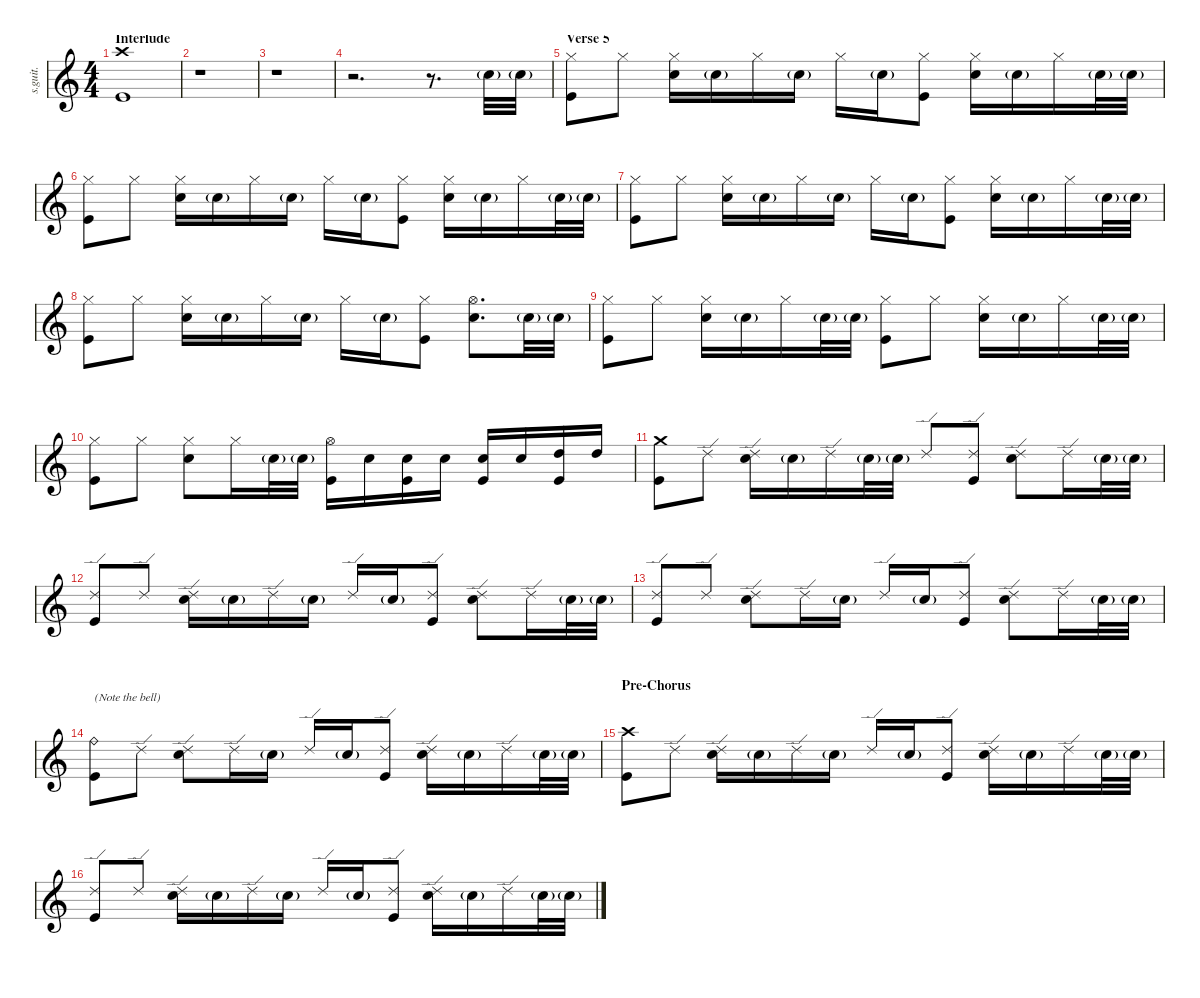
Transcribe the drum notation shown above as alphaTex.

\defaultSystemsLayout 4
\hideDynamics
\bracketExtendMode nobrackets
\track ("C. Smith" "s.guit.") {instrument percussion}
\staff {score}
\articulation defaults
\ts (4 4)
\section ("" "Interlude")
\tempo (96 hide)
\clef g2
\ks c
("Crash high (hit)" "Kick (hit)").1{lyrics (0 "") lyrics (1 "") lyrics (2 "") lyrics (3 "") lyrics (4 "") dy f} |
r.1 |
r.1 |
r.2{d} r.8{d} "Snare (hit) 2"{g}.32{lyrics (0 "") lyrics (1 "") lyrics (2 "") lyrics (3 "") lyrics (4 "") dy ppp} "Snare (hit) 2"{g}.32{lyrics (0 "") lyrics (1 "") lyrics (2 "") lyrics (3 "") lyrics (4 "")} |
\section ("" "Verse 5")
("Hi-Hat (closed)" "Kick (hit)").8{lyrics (0 "") lyrics (1 "") lyrics (2 "") lyrics (3 "") lyrics (4 "") dy f} "Hi-Hat (closed)".8{lyrics (0 "") lyrics (1 "") lyrics (2 "") lyrics (3 "") lyrics (4 "") dy mp} ("Hi-Hat (closed)" "Snare (hit) 2").16{lyrics (0 "") lyrics (1 "") lyrics (2 "") lyrics (3 "") lyrics (4 "") dy f} "Snare (hit) 2"{g}.16{lyrics (0 "") lyrics (1 "") lyrics (2 "") lyrics (3 "") lyrics (4 "") dy ppp} "Hi-Hat (closed)".16{lyrics (0 "") lyrics (1 "") lyrics (2 "") lyrics (3 "") lyrics (4 "") dy mp} "Snare (hit) 2"{g}.16{lyrics (0 "") lyrics (1 "") lyrics (2 "") lyrics (3 "") lyrics (4 "") dy ppp} "Hi-Hat (closed)".16{lyrics (0 "") lyrics (1 "") lyrics (2 "") lyrics (3 "") lyrics (4 "") dy fff} "Snare (hit) 2"{g}.16{lyrics (0 "") lyrics (1 "") lyrics (2 "") lyrics (3 "") lyrics (4 "") dy ppp} ("Hi-Hat (closed)" "Kick (hit)").8{lyrics (0 "") lyrics (1 "") lyrics (2 "") lyrics (3 "") lyrics (4 "") dy f} ("Hi-Hat (closed)" "Snare (hit) 2").16{lyrics (0 "") lyrics (1 "") lyrics (2 "") lyrics (3 "") lyrics (4 "")} "Snare (hit) 2"{g}.16{lyrics (0 "") lyrics (1 "") lyrics (2 "") lyrics (3 "") lyrics (4 "") dy ppp} "Hi-Hat (closed)".16{lyrics (0 "") lyrics (1 "") lyrics (2 "") lyrics (3 "") lyrics (4 "") dy mp} "Snare (hit) 2"{g}.32{lyrics (0 "") lyrics (1 "") lyrics (2 "") lyrics (3 "") lyrics (4 "") dy ppp} "Snare (hit) 2"{g}.32{lyrics (0 "") lyrics (1 "") lyrics (2 "") lyrics (3 "") lyrics (4 "")} |
("Hi-Hat (closed)" "Kick (hit)").8{lyrics (0 "") lyrics (1 "") lyrics (2 "") lyrics (3 "") lyrics (4 "") dy f} "Hi-Hat (closed)".8{lyrics (0 "") lyrics (1 "") lyrics (2 "") lyrics (3 "") lyrics (4 "") dy mp} ("Hi-Hat (closed)" "Snare (hit) 2").16{lyrics (0 "") lyrics (1 "") lyrics (2 "") lyrics (3 "") lyrics (4 "") dy f} "Snare (hit) 2"{g}.16{lyrics (0 "") lyrics (1 "") lyrics (2 "") lyrics (3 "") lyrics (4 "") dy ppp} "Hi-Hat (closed)".16{lyrics (0 "") lyrics (1 "") lyrics (2 "") lyrics (3 "") lyrics (4 "") dy mp} "Snare (hit) 2"{g}.16{lyrics (0 "") lyrics (1 "") lyrics (2 "") lyrics (3 "") lyrics (4 "") dy ppp} "Hi-Hat (closed)".16{lyrics (0 "") lyrics (1 "") lyrics (2 "") lyrics (3 "") lyrics (4 "") dy fff} "Snare (hit) 2"{g}.16{lyrics (0 "") lyrics (1 "") lyrics (2 "") lyrics (3 "") lyrics (4 "") dy ppp} ("Hi-Hat (closed)" "Kick (hit)").8{lyrics (0 "") lyrics (1 "") lyrics (2 "") lyrics (3 "") lyrics (4 "") dy f} ("Hi-Hat (closed)" "Snare (hit) 2").16{lyrics (0 "") lyrics (1 "") lyrics (2 "") lyrics (3 "") lyrics (4 "")} "Snare (hit) 2"{g}.16{lyrics (0 "") lyrics (1 "") lyrics (2 "") lyrics (3 "") lyrics (4 "") dy ppp} "Hi-Hat (closed)".16{lyrics (0 "") lyrics (1 "") lyrics (2 "") lyrics (3 "") lyrics (4 "") dy mp} "Snare (hit) 2"{g}.32{lyrics (0 "") lyrics (1 "") lyrics (2 "") lyrics (3 "") lyrics (4 "") dy ppp} "Snare (hit) 2"{g}.32{lyrics (0 "") lyrics (1 "") lyrics (2 "") lyrics (3 "") lyrics (4 "")} |
("Hi-Hat (closed)" "Kick (hit)").8{lyrics (0 "") lyrics (1 "") lyrics (2 "") lyrics (3 "") lyrics (4 "") dy f} "Hi-Hat (closed)".8{lyrics (0 "") lyrics (1 "") lyrics (2 "") lyrics (3 "") lyrics (4 "") dy mp} ("Hi-Hat (closed)" "Snare (hit) 2").16{lyrics (0 "") lyrics (1 "") lyrics (2 "") lyrics (3 "") lyrics (4 "") dy f} "Snare (hit) 2"{g}.16{lyrics (0 "") lyrics (1 "") lyrics (2 "") lyrics (3 "") lyrics (4 "") dy ppp} "Hi-Hat (closed)".16{lyrics (0 "") lyrics (1 "") lyrics (2 "") lyrics (3 "") lyrics (4 "") dy mp} "Snare (hit) 2"{g}.16{lyrics (0 "") lyrics (1 "") lyrics (2 "") lyrics (3 "") lyrics (4 "") dy ppp} "Hi-Hat (closed)".16{lyrics (0 "") lyrics (1 "") lyrics (2 "") lyrics (3 "") lyrics (4 "") dy fff} "Snare (hit) 2"{g}.16{lyrics (0 "") lyrics (1 "") lyrics (2 "") lyrics (3 "") lyrics (4 "") dy ppp} ("Hi-Hat (closed)" "Kick (hit)").8{lyrics (0 "") lyrics (1 "") lyrics (2 "") lyrics (3 "") lyrics (4 "") dy f} ("Hi-Hat (closed)" "Snare (hit) 2").16{lyrics (0 "") lyrics (1 "") lyrics (2 "") lyrics (3 "") lyrics (4 "")} "Snare (hit) 2"{g}.16{lyrics (0 "") lyrics (1 "") lyrics (2 "") lyrics (3 "") lyrics (4 "") dy ppp} "Hi-Hat (closed)".16{lyrics (0 "") lyrics (1 "") lyrics (2 "") lyrics (3 "") lyrics (4 "") dy mp} "Snare (hit) 2"{g}.32{lyrics (0 "") lyrics (1 "") lyrics (2 "") lyrics (3 "") lyrics (4 "") dy ppp} "Snare (hit) 2"{g}.32{lyrics (0 "") lyrics (1 "") lyrics (2 "") lyrics (3 "") lyrics (4 "")} |
("Hi-Hat (closed)" "Kick (hit)").8{lyrics (0 "") lyrics (1 "") lyrics (2 "") lyrics (3 "") lyrics (4 "") dy f} "Hi-Hat (closed)".8{lyrics (0 "") lyrics (1 "") lyrics (2 "") lyrics (3 "") lyrics (4 "") dy mp} ("Hi-Hat (closed)" "Snare (hit) 2").16{lyrics (0 "") lyrics (1 "") lyrics (2 "") lyrics (3 "") lyrics (4 "") dy f} "Snare (hit) 2"{g}.16{lyrics (0 "") lyrics (1 "") lyrics (2 "") lyrics (3 "") lyrics (4 "") dy ppp} "Hi-Hat (closed)".16{lyrics (0 "") lyrics (1 "") lyrics (2 "") lyrics (3 "") lyrics (4 "") dy mp} "Snare (hit) 2"{g}.16{lyrics (0 "") lyrics (1 "") lyrics (2 "") lyrics (3 "") lyrics (4 "") dy ppp} "Hi-Hat (closed)".16{lyrics (0 "") lyrics (1 "") lyrics (2 "") lyrics (3 "") lyrics (4 "") dy fff} "Snare (hit) 2"{g}.16{lyrics (0 "") lyrics (1 "") lyrics (2 "") lyrics (3 "") lyrics (4 "") dy ppp} ("Hi-Hat (closed)" "Kick (hit)").8{lyrics (0 "") lyrics (1 "") lyrics (2 "") lyrics (3 "") lyrics (4 "") dy f} ("Hi-Hat (open)" "Snare (hit) 2").8{d lyrics (0 "") lyrics (1 "") lyrics (2 "") lyrics (3 "") lyrics (4 "")} "Snare (hit) 2"{g}.32{lyrics (0 "") lyrics (1 "") lyrics (2 "") lyrics (3 "") lyrics (4 "") dy ppp} "Snare (hit) 2"{g}.32{lyrics (0 "") lyrics (1 "") lyrics (2 "") lyrics (3 "") lyrics (4 "")} |
("Hi-Hat (closed)" "Kick (hit)").8{lyrics (0 "") lyrics (1 "") lyrics (2 "") lyrics (3 "") lyrics (4 "") dy f} "Hi-Hat (closed)".8{lyrics (0 "") lyrics (1 "") lyrics (2 "") lyrics (3 "") lyrics (4 "") dy mp} ("Hi-Hat (closed)" "Snare (hit) 2").16{lyrics (0 "") lyrics (1 "") lyrics (2 "") lyrics (3 "") lyrics (4 "") dy f} "Snare (hit) 2"{g}.16{lyrics (0 "") lyrics (1 "") lyrics (2 "") lyrics (3 "") lyrics (4 "") dy ppp} "Hi-Hat (closed)".16{lyrics (0 "") lyrics (1 "") lyrics (2 "") lyrics (3 "") lyrics (4 "") dy mp} "Snare (hit) 2"{g}.32{lyrics (0 "") lyrics (1 "") lyrics (2 "") lyrics (3 "") lyrics (4 "") dy ppp} "Snare (hit) 2"{g}.32{lyrics (0 "") lyrics (1 "") lyrics (2 "") lyrics (3 "") lyrics (4 "")} ("Hi-Hat (closed)" "Kick (hit)").8{lyrics (0 "") lyrics (1 "") lyrics (2 "") lyrics (3 "") lyrics (4 "") dy f} "Hi-Hat (closed)".8{lyrics (0 "") lyrics (1 "") lyrics (2 "") lyrics (3 "") lyrics (4 "") dy mp} ("Hi-Hat (closed)" "Snare (hit) 2").16{lyrics (0 "") lyrics (1 "") lyrics (2 "") lyrics (3 "") lyrics (4 "") dy f} "Snare (hit) 2"{g}.16{lyrics (0 "") lyrics (1 "") lyrics (2 "") lyrics (3 "") lyrics (4 "") dy ppp} "Hi-Hat (closed)".16{lyrics (0 "") lyrics (1 "") lyrics (2 "") lyrics (3 "") lyrics (4 "") dy mp} "Snare (hit) 2"{g}.32{lyrics (0 "") lyrics (1 "") lyrics (2 "") lyrics (3 "") lyrics (4 "") dy ppp} "Snare (hit) 2"{g}.32{lyrics (0 "") lyrics (1 "") lyrics (2 "") lyrics (3 "") lyrics (4 "")} |
("Hi-Hat (closed)" "Kick (hit)").8{lyrics (0 "") lyrics (1 "") lyrics (2 "") lyrics (3 "") lyrics (4 "") dy f} "Hi-Hat (closed)".8{lyrics (0 "") lyrics (1 "") lyrics (2 "") lyrics (3 "") lyrics (4 "") dy mp} ("Hi-Hat (closed)" "Snare (hit) 2").8{lyrics (0 "") lyrics (1 "") lyrics (2 "") lyrics (3 "") lyrics (4 "") dy f} "Hi-Hat (closed)".16{lyrics (0 "") lyrics (1 "") lyrics (2 "") lyrics (3 "") lyrics (4 "") dy fff} "Snare (hit) 2"{g}.32{lyrics (0 "") lyrics (1 "") lyrics (2 "") lyrics (3 "") lyrics (4 "") dy ppp} "Snare (hit) 2"{g}.32{lyrics (0 "") lyrics (1 "") lyrics (2 "") lyrics (3 "") lyrics (4 "")} ("Hi-Hat (open)" "Kick (hit)").16{lyrics (0 "") lyrics (1 "") lyrics (2 "") lyrics (3 "") lyrics (4 "") dy f} "Snare (hit) 2".16{lyrics (0 "") lyrics (1 "") lyrics (2 "") lyrics (3 "") lyrics (4 "") dy p} ("Snare (hit) 2" "Kick (hit)").16{lyrics (0 "") lyrics (1 "") lyrics (2 "") lyrics (3 "") lyrics (4 "") dy mp} "Snare (hit) 2".16{lyrics (0 "") lyrics (1 "") lyrics (2 "") lyrics (3 "") lyrics (4 "") dy f} ("Snare (hit) 2" "Kick (hit)").16{lyrics (0 "") lyrics (1 "") lyrics (2 "") lyrics (3 "") lyrics (4 "") dy fff} "Snare (hit) 2".16{lyrics (0 "") lyrics (1 "") lyrics (2 "") lyrics (3 "") lyrics (4 "")} ("High Tom (hit)" "Kick (hit)").16{lyrics (0 "") lyrics (1 "") lyrics (2 "") lyrics (3 "") lyrics (4 "") dy f} "High Tom (hit)".16{lyrics (0 "") lyrics (1 "") lyrics (2 "") lyrics (3 "") lyrics (4 "")} |
("Crash medium (hit)" "Kick (hit)").8{lyrics (0 "") lyrics (1 "") lyrics (2 "") lyrics (3 "") lyrics (4 "")} "Ride (edge) 2".8{lyrics (0 "") lyrics (1 "") lyrics (2 "") lyrics (3 "") lyrics (4 "")} ("Ride (edge) 2" "Snare (hit) 2").16{lyrics (0 "") lyrics (1 "") lyrics (2 "") lyrics (3 "") lyrics (4 "")} "Snare (hit) 2"{g}.16{lyrics (0 "") lyrics (1 "") lyrics (2 "") lyrics (3 "") lyrics (4 "") dy ppp} "Ride (edge) 2".16{lyrics (0 "") lyrics (1 "") lyrics (2 "") lyrics (3 "") lyrics (4 "") dy f} "Snare (hit) 2"{g}.32{lyrics (0 "") lyrics (1 "") lyrics (2 "") lyrics (3 "") lyrics (4 "") dy ppp} "Snare (hit) 2"{g}.32{lyrics (0 "") lyrics (1 "") lyrics (2 "") lyrics (3 "") lyrics (4 "")} "Ride (edge) 2".8{lyrics (0 "") lyrics (1 "") lyrics (2 "") lyrics (3 "") lyrics (4 "") dy f} ("Ride (edge) 2" "Kick (hit)").8{lyrics (0 "") lyrics (1 "") lyrics (2 "") lyrics (3 "") lyrics (4 "")} ("Ride (edge) 2" "Snare (hit) 2").8{lyrics (0 "") lyrics (1 "") lyrics (2 "") lyrics (3 "") lyrics (4 "")} "Ride (edge) 2".16{lyrics (0 "") lyrics (1 "") lyrics (2 "") lyrics (3 "") lyrics (4 "")} "Snare (hit) 2"{g}.32{lyrics (0 "") lyrics (1 "") lyrics (2 "") lyrics (3 "") lyrics (4 "") dy ppp} "Snare (hit) 2"{g}.32{lyrics (0 "") lyrics (1 "") lyrics (2 "") lyrics (3 "") lyrics (4 "")} |
("Ride (edge) 2" "Kick (hit)").8{lyrics (0 "") lyrics (1 "") lyrics (2 "") lyrics (3 "") lyrics (4 "") dy f} "Ride (edge) 2".8{lyrics (0 "") lyrics (1 "") lyrics (2 "") lyrics (3 "") lyrics (4 "")} ("Ride (edge) 2" "Snare (hit) 2").16{lyrics (0 "") lyrics (1 "") lyrics (2 "") lyrics (3 "") lyrics (4 "")} "Snare (hit) 2"{g}.16{lyrics (0 "") lyrics (1 "") lyrics (2 "") lyrics (3 "") lyrics (4 "") dy ppp} "Ride (edge) 2".16{lyrics (0 "") lyrics (1 "") lyrics (2 "") lyrics (3 "") lyrics (4 "") dy f} "Snare (hit) 2"{g}.16{lyrics (0 "") lyrics (1 "") lyrics (2 "") lyrics (3 "") lyrics (4 "") dy ppp} "Ride (edge) 2".16{lyrics (0 "") lyrics (1 "") lyrics (2 "") lyrics (3 "") lyrics (4 "") dy f} "Snare (hit) 2"{g}.16{lyrics (0 "") lyrics (1 "") lyrics (2 "") lyrics (3 "") lyrics (4 "") dy ppp} ("Ride (edge) 2" "Kick (hit)").8{lyrics (0 "") lyrics (1 "") lyrics (2 "") lyrics (3 "") lyrics (4 "") dy f} ("Ride (edge) 2" "Snare (hit) 2").8{lyrics (0 "") lyrics (1 "") lyrics (2 "") lyrics (3 "") lyrics (4 "")} "Ride (edge) 2".16{lyrics (0 "") lyrics (1 "") lyrics (2 "") lyrics (3 "") lyrics (4 "")} "Snare (hit) 2"{g}.32{lyrics (0 "") lyrics (1 "") lyrics (2 "") lyrics (3 "") lyrics (4 "") dy ppp} "Snare (hit) 2"{g}.32{lyrics (0 "") lyrics (1 "") lyrics (2 "") lyrics (3 "") lyrics (4 "")} |
("Ride (edge) 2" "Kick (hit)").8{lyrics (0 "") lyrics (1 "") lyrics (2 "") lyrics (3 "") lyrics (4 "") dy f} "Ride (edge) 2".8{lyrics (0 "") lyrics (1 "") lyrics (2 "") lyrics (3 "") lyrics (4 "")} ("Ride (edge) 2" "Snare (hit) 2").8{lyrics (0 "") lyrics (1 "") lyrics (2 "") lyrics (3 "") lyrics (4 "")} "Ride (edge) 2".16{lyrics (0 "") lyrics (1 "") lyrics (2 "") lyrics (3 "") lyrics (4 "")} "Snare (hit) 2"{g}.16{lyrics (0 "") lyrics (1 "") lyrics (2 "") lyrics (3 "") lyrics (4 "") dy ppp} "Ride (edge) 2".16{lyrics (0 "") lyrics (1 "") lyrics (2 "") lyrics (3 "") lyrics (4 "") dy f} "Snare (hit) 2"{g}.16{lyrics (0 "") lyrics (1 "") lyrics (2 "") lyrics (3 "") lyrics (4 "") dy ppp} ("Ride (edge) 2" "Kick (hit)").8{lyrics (0 "") lyrics (1 "") lyrics (2 "") lyrics (3 "") lyrics (4 "") dy f} ("Ride (edge) 2" "Snare (hit) 2").8{lyrics (0 "") lyrics (1 "") lyrics (2 "") lyrics (3 "") lyrics (4 "")} "Ride (edge) 2".16{lyrics (0 "") lyrics (1 "") lyrics (2 "") lyrics (3 "") lyrics (4 "")} "Snare (hit) 2"{g}.32{lyrics (0 "") lyrics (1 "") lyrics (2 "") lyrics (3 "") lyrics (4 "") dy ppp} "Snare (hit) 2"{g}.32{lyrics (0 "") lyrics (1 "") lyrics (2 "") lyrics (3 "") lyrics (4 "")} |
("Ride (bell)" "Kick (hit)").8{txt "(Note the bell)" lyrics (0 "") lyrics (1 "") lyrics (2 "") lyrics (3 "") lyrics (4 "") dy f} "Ride (edge) 2".8{lyrics (0 "") lyrics (1 "") lyrics (2 "") lyrics (3 "") lyrics (4 "")} ("Ride (edge) 2" "Snare (hit) 2").8{lyrics (0 "") lyrics (1 "") lyrics (2 "") lyrics (3 "") lyrics (4 "")} "Ride (edge) 2".16{lyrics (0 "") lyrics (1 "") lyrics (2 "") lyrics (3 "") lyrics (4 "")} "Snare (hit) 2"{g}.16{lyrics (0 "") lyrics (1 "") lyrics (2 "") lyrics (3 "") lyrics (4 "") dy ppp} "Ride (edge) 2".16{lyrics (0 "") lyrics (1 "") lyrics (2 "") lyrics (3 "") lyrics (4 "") dy f} "Snare (hit) 2"{g}.16{lyrics (0 "") lyrics (1 "") lyrics (2 "") lyrics (3 "") lyrics (4 "") dy ppp} ("Ride (edge) 2" "Kick (hit)").8{lyrics (0 "") lyrics (1 "") lyrics (2 "") lyrics (3 "") lyrics (4 "") dy f} ("Ride (edge) 2" "Snare (hit) 2").16{lyrics (0 "") lyrics (1 "") lyrics (2 "") lyrics (3 "") lyrics (4 "")} "Snare (hit) 2"{g}.16{lyrics (0 "") lyrics (1 "") lyrics (2 "") lyrics (3 "") lyrics (4 "") dy ppp} "Ride (edge) 2".16{lyrics (0 "") lyrics (1 "") lyrics (2 "") lyrics (3 "") lyrics (4 "") dy f} "Snare (hit) 2"{g}.32{lyrics (0 "") lyrics (1 "") lyrics (2 "") lyrics (3 "") lyrics (4 "") dy ppp} "Snare (hit) 2"{g}.32{lyrics (0 "") lyrics (1 "") lyrics (2 "") lyrics (3 "") lyrics (4 "")} |
\section ("" "Pre-Chorus")
("Crash high (hit)" "Kick (hit)").8{lyrics (0 "") lyrics (1 "") lyrics (2 "") lyrics (3 "") lyrics (4 "") dy f} "Ride (edge) 2".8{lyrics (0 "") lyrics (1 "") lyrics (2 "") lyrics (3 "") lyrics (4 "")} ("Ride (edge) 2" "Snare (hit) 2").16{lyrics (0 "") lyrics (1 "") lyrics (2 "") lyrics (3 "") lyrics (4 "")} "Snare (hit) 2"{g}.16{lyrics (0 "") lyrics (1 "") lyrics (2 "") lyrics (3 "") lyrics (4 "") dy ppp} "Ride (edge) 2".16{lyrics (0 "") lyrics (1 "") lyrics (2 "") lyrics (3 "") lyrics (4 "") dy f} "Snare (hit) 2"{g}.16{lyrics (0 "") lyrics (1 "") lyrics (2 "") lyrics (3 "") lyrics (4 "") dy ppp} "Ride (edge) 2".16{lyrics (0 "") lyrics (1 "") lyrics (2 "") lyrics (3 "") lyrics (4 "") dy f} "Snare (hit) 2"{g}.16{lyrics (0 "") lyrics (1 "") lyrics (2 "") lyrics (3 "") lyrics (4 "") dy ppp} ("Ride (edge) 2" "Kick (hit)").8{lyrics (0 "") lyrics (1 "") lyrics (2 "") lyrics (3 "") lyrics (4 "") dy f} ("Ride (edge) 2" "Snare (hit) 2").16{lyrics (0 "") lyrics (1 "") lyrics (2 "") lyrics (3 "") lyrics (4 "")} "Snare (hit) 2"{g}.16{lyrics (0 "") lyrics (1 "") lyrics (2 "") lyrics (3 "") lyrics (4 "") dy ppp} "Ride (edge) 2".16{lyrics (0 "") lyrics (1 "") lyrics (2 "") lyrics (3 "") lyrics (4 "") dy f} "Snare (hit) 2"{g}.32{lyrics (0 "") lyrics (1 "") lyrics (2 "") lyrics (3 "") lyrics (4 "") dy ppp} "Snare (hit) 2"{g}.32{lyrics (0 "") lyrics (1 "") lyrics (2 "") lyrics (3 "") lyrics (4 "")} |
("Ride (edge) 2" "Kick (hit)").8{lyrics (0 "") lyrics (1 "") lyrics (2 "") lyrics (3 "") lyrics (4 "") dy f} "Ride (edge) 2".8{lyrics (0 "") lyrics (1 "") lyrics (2 "") lyrics (3 "") lyrics (4 "")} ("Ride (edge) 2" "Snare (hit) 2").16{lyrics (0 "") lyrics (1 "") lyrics (2 "") lyrics (3 "") lyrics (4 "")} "Snare (hit) 2"{g}.16{lyrics (0 "") lyrics (1 "") lyrics (2 "") lyrics (3 "") lyrics (4 "") dy ppp} "Ride (edge) 2".16{lyrics (0 "") lyrics (1 "") lyrics (2 "") lyrics (3 "") lyrics (4 "") dy f} "Snare (hit) 2"{g}.16{lyrics (0 "") lyrics (1 "") lyrics (2 "") lyrics (3 "") lyrics (4 "") dy ppp} "Ride (edge) 2".16{lyrics (0 "") lyrics (1 "") lyrics (2 "") lyrics (3 "") lyrics (4 "") dy f} "Snare (hit) 2"{g}.16{lyrics (0 "") lyrics (1 "") lyrics (2 "") lyrics (3 "") lyrics (4 "") dy ppp} ("Ride (edge) 2" "Kick (hit)").8{lyrics (0 "") lyrics (1 "") lyrics (2 "") lyrics (3 "") lyrics (4 "") dy f} ("Ride (edge) 2" "Snare (hit) 2").16{lyrics (0 "") lyrics (1 "") lyrics (2 "") lyrics (3 "") lyrics (4 "")} "Snare (hit) 2"{g}.16{lyrics (0 "") lyrics (1 "") lyrics (2 "") lyrics (3 "") lyrics (4 "") dy ppp} "Ride (edge) 2".16{lyrics (0 "") lyrics (1 "") lyrics (2 "") lyrics (3 "") lyrics (4 "") dy f} "Snare (hit) 2"{g}.32{lyrics (0 "") lyrics (1 "") lyrics (2 "") lyrics (3 "") lyrics (4 "") dy ppp} "Snare (hit) 2"{g}.32{lyrics (0 "") lyrics (1 "") lyrics (2 "") lyrics (3 "") lyrics (4 "")}
